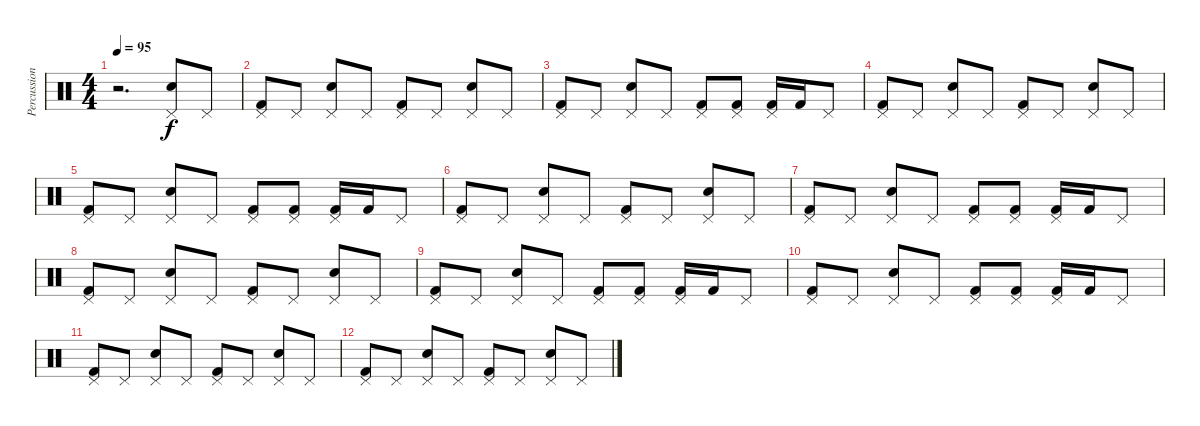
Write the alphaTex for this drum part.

\track ("Percussions" "Percussion") {instrument percussion}
\staff {score}
\articulation defaults
\ts (4 4)
\tempo 95
\clef neutral
\ks c
r.2{d dy f} ("Pedal Hi-Hat (hit)" "Electric Snare (hit)").8 "Pedal Hi-Hat (hit)".8 |
("Pedal Hi-Hat (hit)" "Kick (hit) 2").8 "Pedal Hi-Hat (hit)".8 ("Pedal Hi-Hat (hit)" "Electric Snare (hit)").8 "Pedal Hi-Hat (hit)".8 ("Pedal Hi-Hat (hit)" "Kick (hit) 2").8 "Pedal Hi-Hat (hit)".8 ("Pedal Hi-Hat (hit)" "Electric Snare (hit)").8 "Pedal Hi-Hat (hit)".8 |
("Pedal Hi-Hat (hit)" "Kick (hit) 2").8 "Pedal Hi-Hat (hit)".8 ("Pedal Hi-Hat (hit)" "Electric Snare (hit)").8 "Pedal Hi-Hat (hit)".8 ("Pedal Hi-Hat (hit)" "Kick (hit) 2").8 ("Pedal Hi-Hat (hit)" "Kick (hit) 2").8 ("Pedal Hi-Hat (hit)" "Kick (hit) 2").16 "Kick (hit) 2".16 "Pedal Hi-Hat (hit)".8 |
("Pedal Hi-Hat (hit)" "Kick (hit) 2").8 "Pedal Hi-Hat (hit)".8 ("Pedal Hi-Hat (hit)" "Electric Snare (hit)").8 "Pedal Hi-Hat (hit)".8 ("Pedal Hi-Hat (hit)" "Kick (hit) 2").8 "Pedal Hi-Hat (hit)".8 ("Pedal Hi-Hat (hit)" "Electric Snare (hit)").8 "Pedal Hi-Hat (hit)".8 |
("Pedal Hi-Hat (hit)" "Kick (hit) 2").8 "Pedal Hi-Hat (hit)".8 ("Pedal Hi-Hat (hit)" "Electric Snare (hit)").8 "Pedal Hi-Hat (hit)".8 ("Pedal Hi-Hat (hit)" "Kick (hit) 2").8 ("Pedal Hi-Hat (hit)" "Kick (hit) 2").8 ("Pedal Hi-Hat (hit)" "Kick (hit) 2").16 "Kick (hit) 2".16 "Pedal Hi-Hat (hit)".8 |
("Pedal Hi-Hat (hit)" "Kick (hit) 2").8 "Pedal Hi-Hat (hit)".8 ("Pedal Hi-Hat (hit)" "Electric Snare (hit)").8 "Pedal Hi-Hat (hit)".8 ("Pedal Hi-Hat (hit)" "Kick (hit) 2").8 "Pedal Hi-Hat (hit)".8 ("Pedal Hi-Hat (hit)" "Electric Snare (hit)").8 "Pedal Hi-Hat (hit)".8 |
("Pedal Hi-Hat (hit)" "Kick (hit) 2").8 "Pedal Hi-Hat (hit)".8 ("Pedal Hi-Hat (hit)" "Electric Snare (hit)").8 "Pedal Hi-Hat (hit)".8 ("Pedal Hi-Hat (hit)" "Kick (hit) 2").8 ("Pedal Hi-Hat (hit)" "Kick (hit) 2").8 ("Pedal Hi-Hat (hit)" "Kick (hit) 2").16 "Kick (hit) 2".16 "Pedal Hi-Hat (hit)".8 |
("Pedal Hi-Hat (hit)" "Kick (hit) 2").8 "Pedal Hi-Hat (hit)".8 ("Pedal Hi-Hat (hit)" "Electric Snare (hit)").8 "Pedal Hi-Hat (hit)".8 ("Pedal Hi-Hat (hit)" "Kick (hit) 2").8 "Pedal Hi-Hat (hit)".8 ("Pedal Hi-Hat (hit)" "Electric Snare (hit)").8 "Pedal Hi-Hat (hit)".8 |
("Pedal Hi-Hat (hit)" "Kick (hit) 2").8 "Pedal Hi-Hat (hit)".8 ("Pedal Hi-Hat (hit)" "Electric Snare (hit)").8 "Pedal Hi-Hat (hit)".8 ("Pedal Hi-Hat (hit)" "Kick (hit) 2").8 ("Pedal Hi-Hat (hit)" "Kick (hit) 2").8 ("Pedal Hi-Hat (hit)" "Kick (hit) 2").16 "Kick (hit) 2".16 "Pedal Hi-Hat (hit)".8 |
("Pedal Hi-Hat (hit)" "Kick (hit) 2").8{volume 0} "Pedal Hi-Hat (hit)".8 ("Pedal Hi-Hat (hit)" "Electric Snare (hit)").8 "Pedal Hi-Hat (hit)".8 ("Pedal Hi-Hat (hit)" "Kick (hit) 2").8 ("Pedal Hi-Hat (hit)" "Kick (hit) 2").8 ("Pedal Hi-Hat (hit)" "Kick (hit) 2").16 "Kick (hit) 2".16 "Pedal Hi-Hat (hit)".8 |
("Pedal Hi-Hat (hit)" "Kick (hit) 2").8 "Pedal Hi-Hat (hit)".8 ("Pedal Hi-Hat (hit)" "Electric Snare (hit)").8 "Pedal Hi-Hat (hit)".8 ("Pedal Hi-Hat (hit)" "Kick (hit) 2").8 "Pedal Hi-Hat (hit)".8 ("Pedal Hi-Hat (hit)" "Electric Snare (hit)").8 "Pedal Hi-Hat (hit)".8 |
("Pedal Hi-Hat (hit)" "Kick (hit) 2").8 "Pedal Hi-Hat (hit)".8 ("Pedal Hi-Hat (hit)" "Electric Snare (hit)").8 "Pedal Hi-Hat (hit)".8 ("Pedal Hi-Hat (hit)" "Kick (hit) 2").8 "Pedal Hi-Hat (hit)".8 ("Pedal Hi-Hat (hit)" "Electric Snare (hit)").8 "Pedal Hi-Hat (hit)".8
